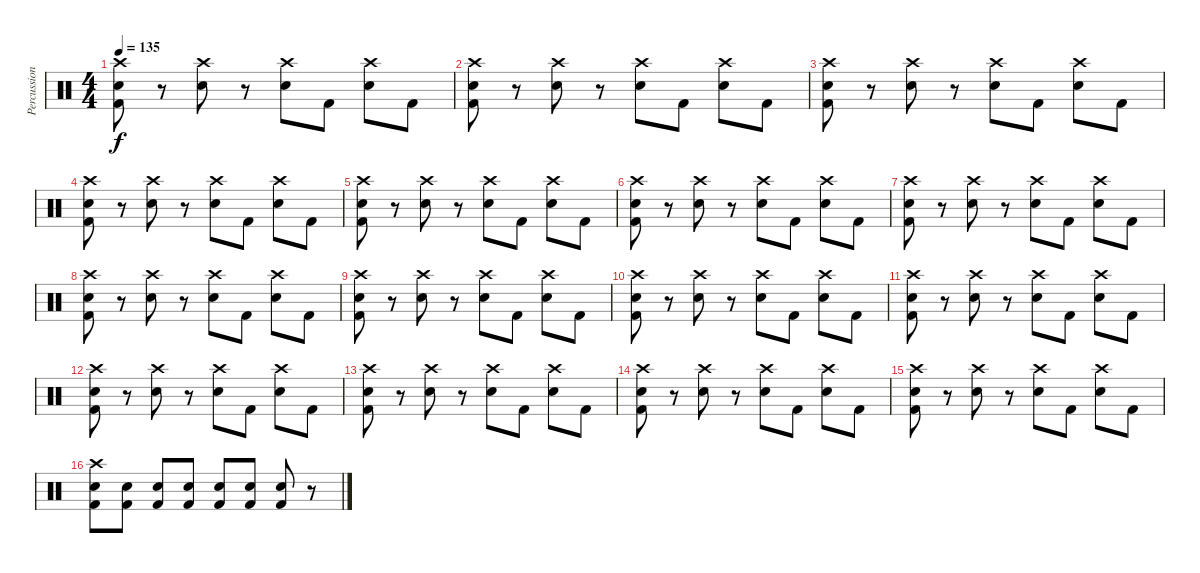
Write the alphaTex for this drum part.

\track ("Percussion" "Percussion") {instrument percussion}
\staff {score}
\articulation defaults
\ts (4 4)
\tempo 135
\clef neutral
\ks c
("Crash high (hit)" "Snare (hit) 2" "Kick (hit) 2").8{dy f} r.8 ("Crash high (hit)" "Snare (hit) 2").8 r.8 ("Crash high (hit)" "Snare (hit) 2").8 "Kick (hit) 2".8 ("Crash high (hit)" "Snare (hit) 2").8 "Kick (hit) 2".8 |
("Crash high (hit)" "Snare (hit) 2" "Kick (hit) 2").8 r.8 ("Crash high (hit)" "Snare (hit) 2").8 r.8 ("Crash high (hit)" "Snare (hit) 2").8 "Kick (hit) 2".8 ("Crash high (hit)" "Snare (hit) 2").8 "Kick (hit) 2".8 |
("Crash high (hit)" "Snare (hit) 2" "Kick (hit) 2").8 r.8 ("Crash high (hit)" "Snare (hit) 2").8 r.8 ("Crash high (hit)" "Snare (hit) 2").8 "Kick (hit) 2".8 ("Crash high (hit)" "Snare (hit) 2").8 "Kick (hit) 2".8 |
("Crash high (hit)" "Snare (hit) 2" "Kick (hit) 2").8 r.8 ("Crash high (hit)" "Snare (hit) 2").8 r.8 ("Crash high (hit)" "Snare (hit) 2").8 "Kick (hit) 2".8 ("Crash high (hit)" "Snare (hit) 2").8 "Kick (hit) 2".8 |
("Crash high (hit)" "Snare (hit) 2" "Kick (hit) 2").8 r.8 ("Crash high (hit)" "Snare (hit) 2").8 r.8 ("Crash high (hit)" "Snare (hit) 2").8 "Kick (hit) 2".8 ("Crash high (hit)" "Snare (hit) 2").8 "Kick (hit) 2".8 |
("Crash high (hit)" "Snare (hit) 2" "Kick (hit) 2").8 r.8 ("Crash high (hit)" "Snare (hit) 2").8 r.8 ("Crash high (hit)" "Snare (hit) 2").8 "Kick (hit) 2".8 ("Crash high (hit)" "Snare (hit) 2").8 "Kick (hit) 2".8 |
("Crash high (hit)" "Snare (hit) 2" "Kick (hit) 2").8 r.8 ("Crash high (hit)" "Snare (hit) 2").8 r.8 ("Crash high (hit)" "Snare (hit) 2").8 "Kick (hit) 2".8 ("Crash high (hit)" "Snare (hit) 2").8 "Kick (hit) 2".8 |
("Crash high (hit)" "Snare (hit) 2" "Kick (hit) 2").8 r.8 ("Crash high (hit)" "Snare (hit) 2").8 r.8 ("Crash high (hit)" "Snare (hit) 2").8 "Kick (hit) 2".8 ("Crash high (hit)" "Snare (hit) 2").8 "Kick (hit) 2".8 |
("Crash high (hit)" "Snare (hit) 2" "Kick (hit) 2").8 r.8 ("Crash high (hit)" "Snare (hit) 2").8 r.8 ("Crash high (hit)" "Snare (hit) 2").8 "Kick (hit) 2".8 ("Crash high (hit)" "Snare (hit) 2").8 "Kick (hit) 2".8 |
("Crash high (hit)" "Snare (hit) 2" "Kick (hit) 2").8 r.8 ("Crash high (hit)" "Snare (hit) 2").8 r.8 ("Crash high (hit)" "Snare (hit) 2").8 "Kick (hit) 2".8 ("Crash high (hit)" "Snare (hit) 2").8 "Kick (hit) 2".8 |
("Crash high (hit)" "Snare (hit) 2" "Kick (hit) 2").8 r.8 ("Crash high (hit)" "Snare (hit) 2").8 r.8 ("Crash high (hit)" "Snare (hit) 2").8 "Kick (hit) 2".8 ("Crash high (hit)" "Snare (hit) 2").8 "Kick (hit) 2".8 |
("Crash high (hit)" "Snare (hit) 2" "Kick (hit) 2").8 r.8 ("Crash high (hit)" "Snare (hit) 2").8 r.8 ("Crash high (hit)" "Snare (hit) 2").8 "Kick (hit) 2".8 ("Crash high (hit)" "Snare (hit) 2").8 "Kick (hit) 2".8 |
("Crash high (hit)" "Snare (hit) 2" "Kick (hit) 2").8 r.8 ("Crash high (hit)" "Snare (hit) 2").8 r.8 ("Crash high (hit)" "Snare (hit) 2").8 "Kick (hit) 2".8 ("Crash high (hit)" "Snare (hit) 2").8 "Kick (hit) 2".8 |
("Crash high (hit)" "Snare (hit) 2" "Kick (hit) 2").8 r.8 ("Crash high (hit)" "Snare (hit) 2").8 r.8 ("Crash high (hit)" "Snare (hit) 2").8 "Kick (hit) 2".8 ("Crash high (hit)" "Snare (hit) 2").8 "Kick (hit) 2".8 |
("Crash high (hit)" "Snare (hit) 2" "Kick (hit) 2").8 r.8 ("Crash high (hit)" "Snare (hit) 2").8 r.8 ("Crash high (hit)" "Snare (hit) 2").8 "Kick (hit) 2".8 ("Crash high (hit)" "Snare (hit) 2").8 "Kick (hit) 2".8 |
("Crash high (hit)" "Snare (hit) 2" "Kick (hit) 2").8 ("Snare (hit) 2" "Kick (hit) 2").8 ("Snare (hit) 2" "Kick (hit) 2").8 ("Snare (hit) 2" "Kick (hit) 2").8 ("Snare (hit) 2" "Kick (hit) 2").8 ("Snare (hit) 2" "Kick (hit) 2").8 ("Snare (hit) 2" "Kick (hit) 2").8 r.8
